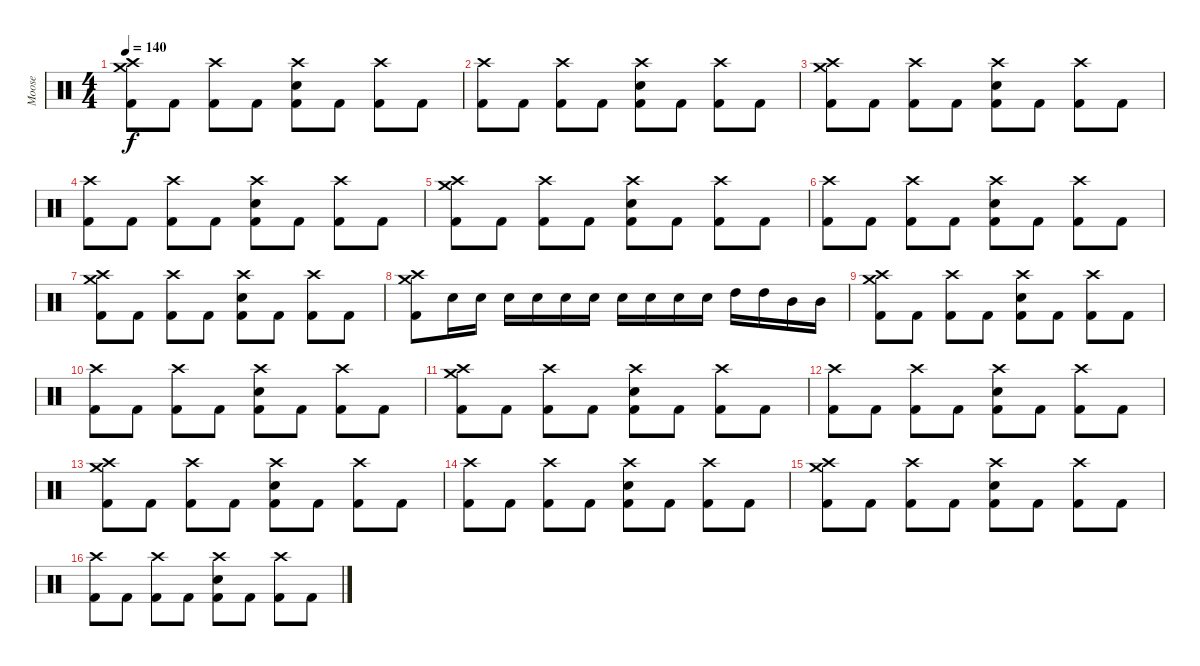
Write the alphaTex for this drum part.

\track ("Moose" "Moose") {instrument percussion}
\staff {score}
\articulation defaults
\ts (4 4)
\tempo 140
\clef neutral
\ks c
("Crash high (hit)" "Crash medium (hit)" "Kick (hit) 2").8{dy f} "Kick (hit) 2".8 ("Crash high (hit)" "Kick (hit) 2").8 "Kick (hit) 2".8 ("Crash high (hit)" "Snare (hit) 2" "Kick (hit) 2").8 "Kick (hit) 2".8 ("Crash high (hit)" "Kick (hit) 2").8 "Kick (hit) 2".8 |
("Crash high (hit)" "Kick (hit) 2").8 "Kick (hit) 2".8 ("Crash high (hit)" "Kick (hit) 2").8 "Kick (hit) 2".8 ("Crash high (hit)" "Snare (hit) 2" "Kick (hit) 2").8 "Kick (hit) 2".8 ("Crash high (hit)" "Kick (hit) 2").8 "Kick (hit) 2".8 |
("Crash high (hit)" "Crash medium (hit)" "Kick (hit) 2").8 "Kick (hit) 2".8 ("Crash high (hit)" "Kick (hit) 2").8 "Kick (hit) 2".8 ("Crash high (hit)" "Snare (hit) 2" "Kick (hit) 2").8 "Kick (hit) 2".8 ("Crash high (hit)" "Kick (hit) 2").8 "Kick (hit) 2".8 |
("Crash high (hit)" "Kick (hit) 2").8 "Kick (hit) 2".8 ("Crash high (hit)" "Kick (hit) 2").8 "Kick (hit) 2".8 ("Crash high (hit)" "Snare (hit) 2" "Kick (hit) 2").8 "Kick (hit) 2".8 ("Crash high (hit)" "Kick (hit) 2").8 "Kick (hit) 2".8 |
("Crash high (hit)" "Crash medium (hit)" "Kick (hit) 2").8 "Kick (hit) 2".8 ("Crash high (hit)" "Kick (hit) 2").8 "Kick (hit) 2".8 ("Crash high (hit)" "Snare (hit) 2" "Kick (hit) 2").8 "Kick (hit) 2".8 ("Crash high (hit)" "Kick (hit) 2").8 "Kick (hit) 2".8 |
("Crash high (hit)" "Kick (hit) 2").8 "Kick (hit) 2".8 ("Crash high (hit)" "Kick (hit) 2").8 "Kick (hit) 2".8 ("Crash high (hit)" "Snare (hit) 2" "Kick (hit) 2").8 "Kick (hit) 2".8 ("Crash high (hit)" "Kick (hit) 2").8 "Kick (hit) 2".8 |
("Crash high (hit)" "Crash medium (hit)" "Kick (hit) 2").8 "Kick (hit) 2".8 ("Crash high (hit)" "Kick (hit) 2").8 "Kick (hit) 2".8 ("Crash high (hit)" "Snare (hit) 2" "Kick (hit) 2").8 "Kick (hit) 2".8 ("Crash high (hit)" "Kick (hit) 2").8 "Kick (hit) 2".8 |
("Crash high (hit)" "Crash medium (hit)" "Kick (hit) 2").8 "Snare (hit) 2".16 "Snare (hit) 2".16 "Snare (hit) 2".16 "Snare (hit) 2".16 "Snare (hit) 2".16 "Snare (hit) 2".16 "Snare (hit) 2".16 "Snare (hit) 2".16 "Snare (hit) 2".16 "Snare (hit) 2".16 "High Tom (hit)".16 "High Tom (hit)".16 "Mid Tom (hit)".16 "Mid Tom (hit)".16 |
("Crash high (hit)" "Crash medium (hit)" "Kick (hit) 2").8 "Kick (hit) 2".8 ("Crash high (hit)" "Kick (hit) 2").8 "Kick (hit) 2".8 ("Crash high (hit)" "Snare (hit) 2" "Kick (hit) 2").8 "Kick (hit) 2".8 ("Crash high (hit)" "Kick (hit) 2").8 "Kick (hit) 2".8 |
("Crash high (hit)" "Kick (hit) 2").8 "Kick (hit) 2".8 ("Crash high (hit)" "Kick (hit) 2").8 "Kick (hit) 2".8 ("Crash high (hit)" "Snare (hit) 2" "Kick (hit) 2").8 "Kick (hit) 2".8 ("Crash high (hit)" "Kick (hit) 2").8 "Kick (hit) 2".8 |
("Crash high (hit)" "Crash medium (hit)" "Kick (hit) 2").8 "Kick (hit) 2".8 ("Crash high (hit)" "Kick (hit) 2").8 "Kick (hit) 2".8 ("Crash high (hit)" "Snare (hit) 2" "Kick (hit) 2").8 "Kick (hit) 2".8 ("Crash high (hit)" "Kick (hit) 2").8 "Kick (hit) 2".8 |
("Crash high (hit)" "Kick (hit) 2").8 "Kick (hit) 2".8 ("Crash high (hit)" "Kick (hit) 2").8 "Kick (hit) 2".8 ("Crash high (hit)" "Snare (hit) 2" "Kick (hit) 2").8 "Kick (hit) 2".8 ("Crash high (hit)" "Kick (hit) 2").8 "Kick (hit) 2".8 |
("Crash high (hit)" "Crash medium (hit)" "Kick (hit) 2").8 "Kick (hit) 2".8 ("Crash high (hit)" "Kick (hit) 2").8 "Kick (hit) 2".8 ("Crash high (hit)" "Snare (hit) 2" "Kick (hit) 2").8 "Kick (hit) 2".8 ("Crash high (hit)" "Kick (hit) 2").8 "Kick (hit) 2".8 |
("Crash high (hit)" "Kick (hit) 2").8 "Kick (hit) 2".8 ("Crash high (hit)" "Kick (hit) 2").8 "Kick (hit) 2".8 ("Crash high (hit)" "Snare (hit) 2" "Kick (hit) 2").8 "Kick (hit) 2".8 ("Crash high (hit)" "Kick (hit) 2").8 "Kick (hit) 2".8 |
("Crash high (hit)" "Crash medium (hit)" "Kick (hit) 2").8 "Kick (hit) 2".8 ("Crash high (hit)" "Kick (hit) 2").8 "Kick (hit) 2".8 ("Crash high (hit)" "Snare (hit) 2" "Kick (hit) 2").8 "Kick (hit) 2".8 ("Crash high (hit)" "Kick (hit) 2").8 "Kick (hit) 2".8 |
("Crash high (hit)" "Kick (hit) 2").8 "Kick (hit) 2".8 ("Crash high (hit)" "Kick (hit) 2").8 "Kick (hit) 2".8 ("Crash high (hit)" "Snare (hit) 2" "Kick (hit) 2").8 "Kick (hit) 2".8 ("Crash high (hit)" "Kick (hit) 2").8 "Kick (hit) 2".8
